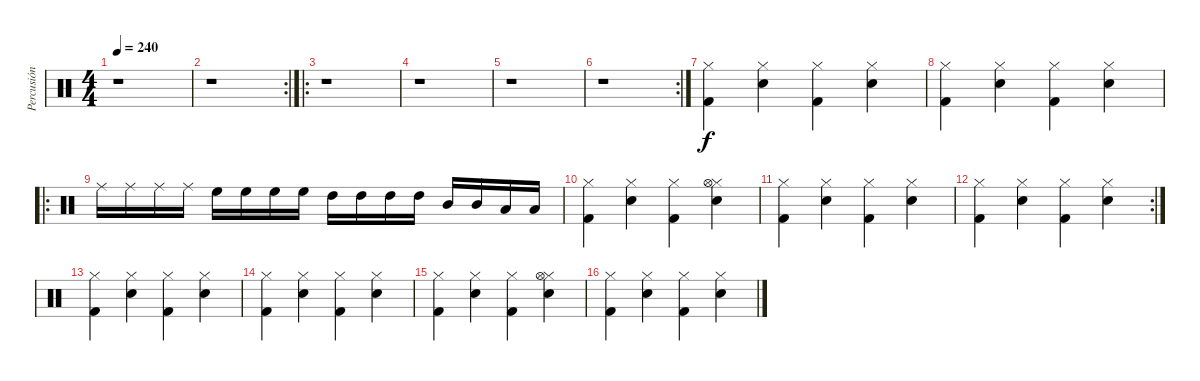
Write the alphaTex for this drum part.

\track ("Percusión" "Percusión") {instrument percussion}
\staff {score}
\articulation defaults
\ts (4 4)
\tempo 240
\clef neutral
\ks c
r.1{dy f} |
\rc 2
r.1 |
\ro
r.1 |
r.1 |
r.1 |
\rc 2
r.1 |
("Hi-Hat (closed)" "Kick (hit) 2").4 ("Snare (hit) 2" "Hi-Hat (closed)").4 ("Hi-Hat (closed)" "Kick (hit) 2").4 ("Snare (hit) 2" "Hi-Hat (closed)").4 |
("Hi-Hat (closed)" "Kick (hit) 2").4 ("Snare (hit) 2" "Hi-Hat (closed)").4 ("Hi-Hat (closed)" "Kick (hit) 2").4 ("Snare (hit) 2" "Hi-Hat (closed)").4 |
\ro "Ride (middle)".16 "Ride (middle)".16 "Ride (middle)".16 "Ride (middle)".16 "High Floor Tom (hit)".16 "High Floor Tom (hit)".16 "High Floor Tom (hit)".16 "High Floor Tom (hit)".16 "High Tom (hit)".16 "High Tom (hit)".16 "High Tom (hit)".16 "High Tom (hit)".16 "Mid Tom (hit)".16 "Mid Tom (hit)".16 "Low Tom (hit)".16 "Low Tom (hit)".16
|
("Hi-Hat (closed)" "Kick (hit) 2").4 ("Snare (hit) 2" "Hi-Hat (closed)").4 ("Hi-Hat (closed)" "Kick (hit) 2").4 ("Snare (hit) 2" "Hi-Hat (closed)" "Hi-Hat (open)").4 |
("Hi-Hat (closed)" "Kick (hit) 2").4 ("Snare (hit) 2" "Hi-Hat (closed)").4 ("Hi-Hat (closed)" "Kick (hit) 2").4 ("Snare (hit) 2" "Hi-Hat (closed)").4 |
\rc 2
("Hi-Hat (closed)" "Kick (hit) 2").4 ("Snare (hit) 2" "Hi-Hat (closed)").4 ("Hi-Hat (closed)" "Kick (hit) 2").4 ("Snare (hit) 2" "Hi-Hat (closed)").4 |
("Hi-Hat (closed)" "Kick (hit) 2").4 ("Snare (hit) 2" "Hi-Hat (closed)").4 ("Hi-Hat (closed)" "Kick (hit) 2").4 ("Snare (hit) 2" "Hi-Hat (closed)").4 |
("Hi-Hat (closed)" "Kick (hit) 2").4 ("Snare (hit) 2" "Hi-Hat (closed)").4 ("Hi-Hat (closed)" "Kick (hit) 2").4 ("Snare (hit) 2" "Hi-Hat (closed)").4 |
("Hi-Hat (closed)" "Kick (hit) 2").4 ("Snare (hit) 2" "Hi-Hat (closed)").4 ("Hi-Hat (closed)" "Kick (hit) 2").4 ("Snare (hit) 2" "Hi-Hat (closed)" "Hi-Hat (open)").4 |
("Hi-Hat (closed)" "Kick (hit) 2").4 ("Snare (hit) 2" "Hi-Hat (closed)").4 ("Hi-Hat (closed)" "Kick (hit) 2").4 ("Snare (hit) 2" "Hi-Hat (closed)").4
